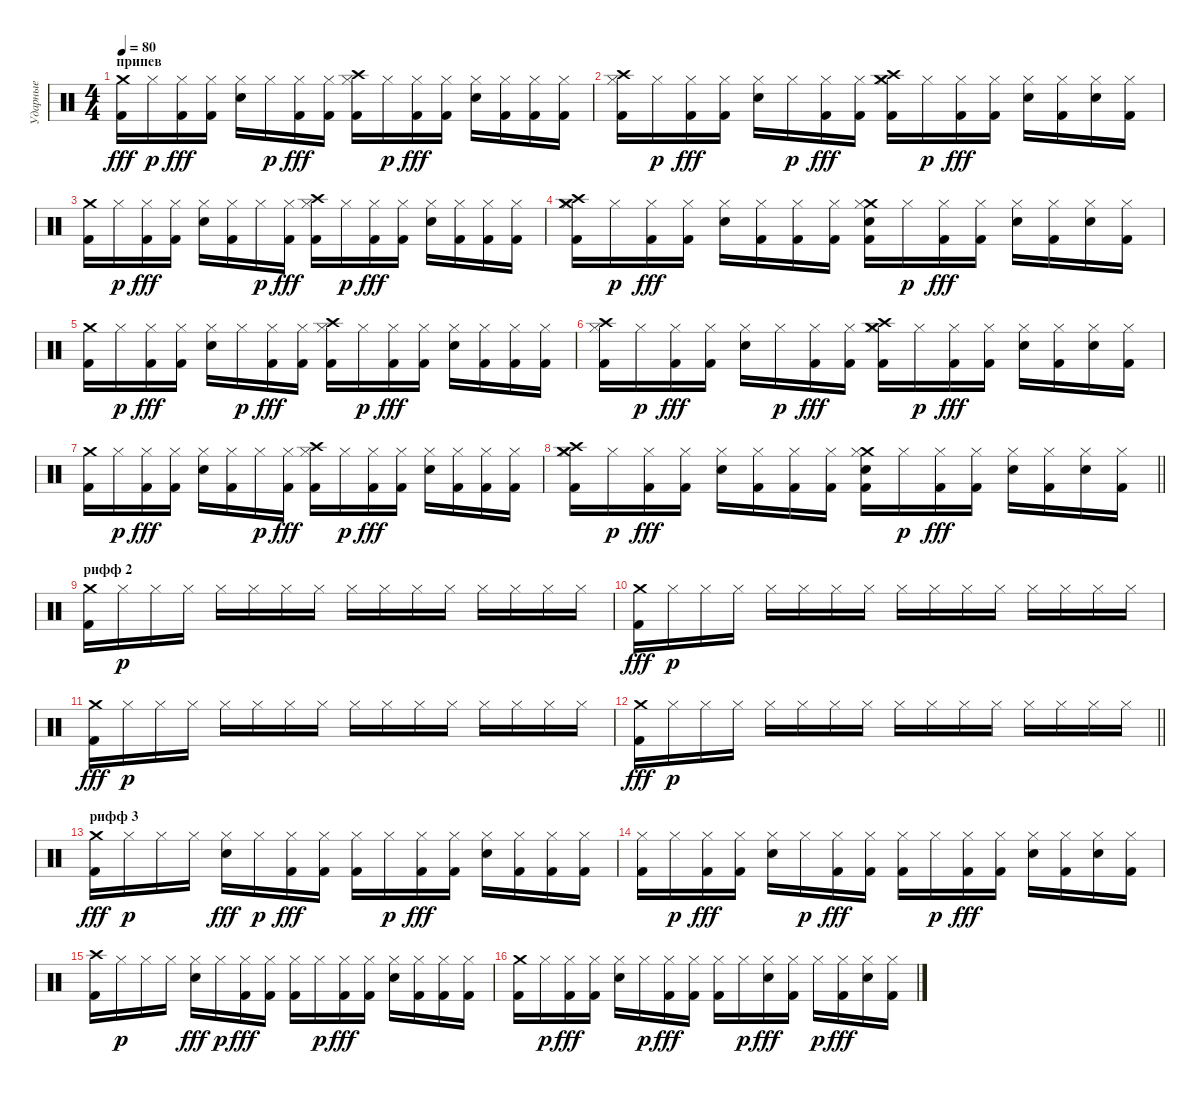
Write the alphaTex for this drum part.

\track ("Ударные" "Ударные") {instrument percussion}
\staff {score}
\articulation defaults
\ts (4 4)
\section ("" "припев")
\tempo 80
\clef neutral
\ks c
("Crash medium (hit)" "Kick (hit) 2").16{dy fff} "Hi-Hat (closed)".16{dy p} ("Hi-Hat (closed)" "Kick (hit) 2").16{dy fff} ("Hi-Hat (closed)" "Kick (hit) 2").16 ("Hi-Hat (closed)" "Snare (hit) 2").16 "Hi-Hat (closed)".16{dy p} ("Hi-Hat (closed)" "Kick (hit) 2").16{dy fff} ("Hi-Hat (closed)" "Kick (hit) 2").16 ("Crash high (hit)" "Hi-Hat (closed)" "Kick (hit) 2").16 "Hi-Hat (closed)".16{dy p} ("Hi-Hat (closed)" "Kick (hit) 2").16{dy fff} ("Hi-Hat (closed)" "Kick (hit) 2").16 ("Hi-Hat (closed)" "Snare (hit) 2").16 ("Hi-Hat (closed)" "Kick (hit) 2").16 ("Hi-Hat (closed)" "Kick (hit) 2").16 ("Hi-Hat (closed)" "Kick (hit) 2").16 |
("Crash high (hit)" "Hi-Hat (closed)" "Kick (hit) 2").16 "Hi-Hat (closed)".16{dy p} ("Hi-Hat (closed)" "Kick (hit) 2").16{dy fff} ("Hi-Hat (closed)" "Kick (hit) 2").16 ("Hi-Hat (closed)" "Snare (hit) 2").16 "Hi-Hat (closed)".16{dy p} ("Hi-Hat (closed)" "Kick (hit) 2").16{dy fff} ("Hi-Hat (closed)" "Kick (hit) 2").16 ("Crash medium (hit)" "Crash high (hit)" "Hi-Hat (closed)" "Kick (hit) 2").16 "Hi-Hat (closed)".16{dy p} ("Hi-Hat (closed)" "Kick (hit) 2").16{dy fff} ("Hi-Hat (closed)" "Kick (hit) 2").16 ("Hi-Hat (closed)" "Snare (hit) 2").16 ("Hi-Hat (closed)" "Kick (hit) 2").16 ("Hi-Hat (closed)" "Snare (hit) 2").16 ("Hi-Hat (closed)" "Kick (hit) 2").16 |
("Crash medium (hit)" "Kick (hit) 2").16 "Hi-Hat (closed)".16{dy p} ("Hi-Hat (closed)" "Kick (hit) 2").16{dy fff} ("Hi-Hat (closed)" "Kick (hit) 2").16 ("Hi-Hat (closed)" "Snare (hit) 2").16 ("Hi-Hat (closed)" "Kick (hit) 2").16 "Hi-Hat (closed)".16{dy p} ("Hi-Hat (closed)" "Kick (hit) 2").16{dy fff} ("Crash high (hit)" "Hi-Hat (closed)" "Kick (hit) 2").16 "Hi-Hat (closed)".16{dy p} ("Hi-Hat (closed)" "Kick (hit) 2").16{dy fff} ("Hi-Hat (closed)" "Kick (hit) 2").16 ("Hi-Hat (closed)" "Snare (hit) 2").16 ("Hi-Hat (closed)" "Kick (hit) 2").16 ("Hi-Hat (closed)" "Kick (hit) 2").16 ("Hi-Hat (closed)" "Kick (hit) 2").16 |
("Crash high (hit)" "Crash medium (hit)" "Hi-Hat (closed)" "Kick (hit) 2").16 "Hi-Hat (closed)".16{dy p} ("Hi-Hat (closed)" "Kick (hit) 2").16{dy fff} ("Hi-Hat (closed)" "Kick (hit) 2").16 ("Hi-Hat (closed)" "Snare (hit) 2").16 ("Hi-Hat (closed)" "Kick (hit) 2").16 ("Hi-Hat (closed)" "Kick (hit) 2").16 ("Hi-Hat (closed)" "Kick (hit) 2").16 ("Crash medium (hit)" "Hi-Hat (closed)" "Snare (hit) 2" "Kick (hit) 2").16 "Hi-Hat (closed)".16{dy p} ("Hi-Hat (closed)" "Kick (hit) 2").16{dy fff} ("Hi-Hat (closed)" "Kick (hit) 2").16 ("Hi-Hat (closed)" "Snare (hit) 2").16 ("Hi-Hat (closed)" "Kick (hit) 2").16 ("Hi-Hat (closed)" "Snare (hit) 2").16 ("Hi-Hat (closed)" "Kick (hit) 2").16 |
("Crash medium (hit)" "Kick (hit) 2").16 "Hi-Hat (closed)".16{dy p} ("Hi-Hat (closed)" "Kick (hit) 2").16{dy fff} ("Hi-Hat (closed)" "Kick (hit) 2").16 ("Hi-Hat (closed)" "Snare (hit) 2").16 "Hi-Hat (closed)".16{dy p} ("Hi-Hat (closed)" "Kick (hit) 2").16{dy fff} ("Hi-Hat (closed)" "Kick (hit) 2").16 ("Crash high (hit)" "Hi-Hat (closed)" "Kick (hit) 2").16 "Hi-Hat (closed)".16{dy p} ("Hi-Hat (closed)" "Kick (hit) 2").16{dy fff} ("Hi-Hat (closed)" "Kick (hit) 2").16 ("Hi-Hat (closed)" "Snare (hit) 2").16 ("Hi-Hat (closed)" "Kick (hit) 2").16 ("Hi-Hat (closed)" "Kick (hit) 2").16 ("Hi-Hat (closed)" "Kick (hit) 2").16 |
("Crash high (hit)" "Hi-Hat (closed)" "Kick (hit) 2").16 "Hi-Hat (closed)".16{dy p} ("Hi-Hat (closed)" "Kick (hit) 2").16{dy fff} ("Hi-Hat (closed)" "Kick (hit) 2").16 ("Hi-Hat (closed)" "Snare (hit) 2").16 "Hi-Hat (closed)".16{dy p} ("Hi-Hat (closed)" "Kick (hit) 2").16{dy fff} ("Hi-Hat (closed)" "Kick (hit) 2").16 ("Crash medium (hit)" "Crash high (hit)" "Hi-Hat (closed)" "Kick (hit) 2").16 "Hi-Hat (closed)".16{dy p} ("Hi-Hat (closed)" "Kick (hit) 2").16{dy fff} ("Hi-Hat (closed)" "Kick (hit) 2").16 ("Hi-Hat (closed)" "Snare (hit) 2").16 ("Hi-Hat (closed)" "Kick (hit) 2").16 ("Hi-Hat (closed)" "Snare (hit) 2").16 ("Hi-Hat (closed)" "Kick (hit) 2").16 |
("Crash medium (hit)" "Kick (hit) 2").16 "Hi-Hat (closed)".16{dy p} ("Hi-Hat (closed)" "Kick (hit) 2").16{dy fff} ("Hi-Hat (closed)" "Kick (hit) 2").16 ("Hi-Hat (closed)" "Snare (hit) 2").16 ("Hi-Hat (closed)" "Kick (hit) 2").16 "Hi-Hat (closed)".16{dy p} ("Hi-Hat (closed)" "Kick (hit) 2").16{dy fff} ("Crash high (hit)" "Hi-Hat (closed)" "Kick (hit) 2").16 "Hi-Hat (closed)".16{dy p} ("Hi-Hat (closed)" "Kick (hit) 2").16{dy fff} ("Hi-Hat (closed)" "Kick (hit) 2").16 ("Hi-Hat (closed)" "Snare (hit) 2").16 ("Hi-Hat (closed)" "Kick (hit) 2").16 ("Hi-Hat (closed)" "Kick (hit) 2").16 ("Hi-Hat (closed)" "Kick (hit) 2").16 |
\barLineRight lightlight
("Crash high (hit)" "Crash medium (hit)" "Hi-Hat (closed)" "Kick (hit) 2").16 "Hi-Hat (closed)".16{dy p} ("Hi-Hat (closed)" "Kick (hit) 2").16{dy fff} ("Hi-Hat (closed)" "Kick (hit) 2").16 ("Hi-Hat (closed)" "Snare (hit) 2").16 ("Hi-Hat (closed)" "Kick (hit) 2").16 ("Hi-Hat (closed)" "Kick (hit) 2").16 ("Hi-Hat (closed)" "Kick (hit) 2").16 ("Crash medium (hit)" "Hi-Hat (closed)" "Snare (hit) 2" "Kick (hit) 2").16 "Hi-Hat (closed)".16{dy p} ("Hi-Hat (closed)" "Kick (hit) 2").16{dy fff} ("Hi-Hat (closed)" "Kick (hit) 2").16 ("Hi-Hat (closed)" "Snare (hit) 2").16 ("Hi-Hat (closed)" "Kick (hit) 2").16 ("Hi-Hat (closed)" "Snare (hit) 2").16 ("Hi-Hat (closed)" "Kick (hit) 2").16 |
\section ("" "рифф 2")
("Crash medium (hit)" "Kick (hit) 2").16 "Hi-Hat (closed)".16{dy p} "Hi-Hat (closed)".16 "Hi-Hat (closed)".16 "Hi-Hat (closed)".16 "Hi-Hat (closed)".16 "Hi-Hat (closed)".16 "Hi-Hat (closed)".16 "Hi-Hat (closed)".16 "Hi-Hat (closed)".16 "Hi-Hat (closed)".16 "Hi-Hat (closed)".16 "Hi-Hat (closed)".16 "Hi-Hat (closed)".16 "Hi-Hat (closed)".16 "Hi-Hat (closed)".16 |
("Crash medium (hit)" "Kick (hit) 2").16{dy fff} "Hi-Hat (closed)".16{dy p} "Hi-Hat (closed)".16 "Hi-Hat (closed)".16 "Hi-Hat (closed)".16 "Hi-Hat (closed)".16 "Hi-Hat (closed)".16 "Hi-Hat (closed)".16 "Hi-Hat (closed)".16 "Hi-Hat (closed)".16 "Hi-Hat (closed)".16 "Hi-Hat (closed)".16 "Hi-Hat (closed)".16 "Hi-Hat (closed)".16 "Hi-Hat (closed)".16 "Hi-Hat (closed)".16 |
("Crash medium (hit)" "Kick (hit) 2").16{dy fff} "Hi-Hat (closed)".16{dy p} "Hi-Hat (closed)".16 "Hi-Hat (closed)".16 "Hi-Hat (closed)".16 "Hi-Hat (closed)".16 "Hi-Hat (closed)".16 "Hi-Hat (closed)".16 "Hi-Hat (closed)".16 "Hi-Hat (closed)".16 "Hi-Hat (closed)".16 "Hi-Hat (closed)".16 "Hi-Hat (closed)".16 "Hi-Hat (closed)".16 "Hi-Hat (closed)".16 "Hi-Hat (closed)".16 |
\barLineRight lightlight
("Crash medium (hit)" "Kick (hit) 2").16{dy fff} "Hi-Hat (closed)".16{dy p} "Hi-Hat (closed)".16 "Hi-Hat (closed)".16 "Hi-Hat (closed)".16 "Hi-Hat (closed)".16 "Hi-Hat (closed)".16 "Hi-Hat (closed)".16 "Hi-Hat (closed)".16 "Hi-Hat (closed)".16 "Hi-Hat (closed)".16 "Hi-Hat (closed)".16 "Hi-Hat (closed)".16 "Hi-Hat (closed)".16 "Hi-Hat (closed)".16 "Hi-Hat (closed)".16 |
\section ("" "рифф 3")
("Crash medium (hit)" "Kick (hit) 2").16{dy fff} "Hi-Hat (closed)".16{dy p} "Hi-Hat (closed)".16 "Hi-Hat (closed)".16 ("Hi-Hat (closed)" "Snare (hit) 2").16{dy fff} "Hi-Hat (closed)".16{dy p} ("Hi-Hat (closed)" "Kick (hit) 2").16{dy fff} ("Hi-Hat (closed)" "Kick (hit) 2").16 ("Hi-Hat (closed)" "Kick (hit) 2").16 "Hi-Hat (closed)".16{dy p} ("Hi-Hat (closed)" "Kick (hit) 2").16{dy fff} ("Hi-Hat (closed)" "Kick (hit) 2").16 ("Hi-Hat (closed)" "Snare (hit) 2").16 ("Hi-Hat (closed)" "Kick (hit) 2").16 ("Hi-Hat (closed)" "Kick (hit) 2").16 ("Hi-Hat (closed)" "Kick (hit) 2").16 |
("Hi-Hat (closed)" "Kick (hit) 2").16 "Hi-Hat (closed)".16{dy p} ("Hi-Hat (closed)" "Kick (hit) 2").16{dy fff} ("Hi-Hat (closed)" "Kick (hit) 2").16 ("Hi-Hat (closed)" "Snare (hit) 2").16 "Hi-Hat (closed)".16{dy p} ("Hi-Hat (closed)" "Kick (hit) 2").16{dy fff} ("Hi-Hat (closed)" "Kick (hit) 2").16 ("Hi-Hat (closed)" "Kick (hit) 2").16 "Hi-Hat (closed)".16{dy p} ("Hi-Hat (closed)" "Kick (hit) 2").16{dy fff} ("Hi-Hat (closed)" "Kick (hit) 2").16 ("Hi-Hat (closed)" "Snare (hit) 2").16 ("Hi-Hat (closed)" "Kick (hit) 2").16 ("Hi-Hat (closed)" "Snare (hit) 2").16 ("Hi-Hat (closed)" "Kick (hit) 2").16 |
("Crash high (hit)" "Kick (hit) 2").16 "Hi-Hat (closed)".16{dy p} "Hi-Hat (closed)".16 "Hi-Hat (closed)".16 ("Hi-Hat (closed)" "Snare (hit) 2").16{dy fff} "Hi-Hat (closed)".16{dy p} ("Hi-Hat (closed)" "Kick (hit) 2").16{dy fff} ("Hi-Hat (closed)" "Kick (hit) 2").16 ("Hi-Hat (closed)" "Kick (hit) 2").16 "Hi-Hat (closed)".16{dy p} ("Hi-Hat (closed)" "Kick (hit) 2").16{dy fff} ("Hi-Hat (closed)" "Kick (hit) 2").16 ("Hi-Hat (closed)" "Snare (hit) 2").16 ("Hi-Hat (closed)" "Kick (hit) 2").16 ("Hi-Hat (closed)" "Kick (hit) 2").16 ("Hi-Hat (closed)" "Kick (hit) 2").16 |
("Crash medium (hit)" "Kick (hit) 2").16 "Hi-Hat (closed)".16{dy p} ("Hi-Hat (closed)" "Kick (hit) 2").16{dy fff} ("Hi-Hat (closed)" "Kick (hit) 2").16 ("Hi-Hat (closed)" "Snare (hit) 2").16 "Hi-Hat (closed)".16{dy p} ("Hi-Hat (closed)" "Kick (hit) 2").16{dy fff} ("Hi-Hat (closed)" "Kick (hit) 2").16 ("Hi-Hat (closed)" "Kick (hit) 2").16 "Hi-Hat (closed)".16{dy p} ("Hi-Hat (closed)" "Snare (hit) 2").16{dy fff} ("Hi-Hat (closed)" "Kick (hit) 2").16 "Hi-Hat (closed)".16{dy p} ("Hi-Hat (closed)" "Kick (hit) 2").16{dy fff} ("Hi-Hat (closed)" "Snare (hit) 2").16 ("Hi-Hat (closed)" "Kick (hit) 2").16
